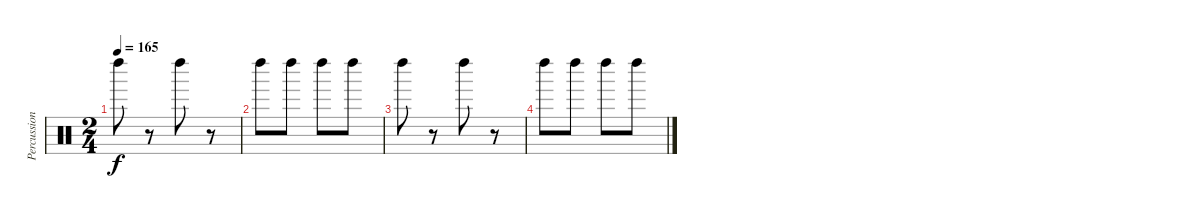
\track ("Percussion" "Percussion") {instrument percussion}
\staff {score}
\articulation defaults
\ts (2 4)
\tempo 165
\clef neutral
\ks c "Left Maraca (hit)".8{dy f}
r.8 "Left Maraca (hit)".8 r.8 |
"Left Maraca (hit)".8 "Left Maraca (hit)".8 "Left Maraca (hit)".8 "Left Maraca (hit)".8 |
"Left Maraca (hit)".8 r.8 "Left Maraca (hit)".8 r.8 |
"Left Maraca (hit)".8 "Left Maraca (hit)".8 "Left Maraca (hit)".8 "Left Maraca (hit)".8
